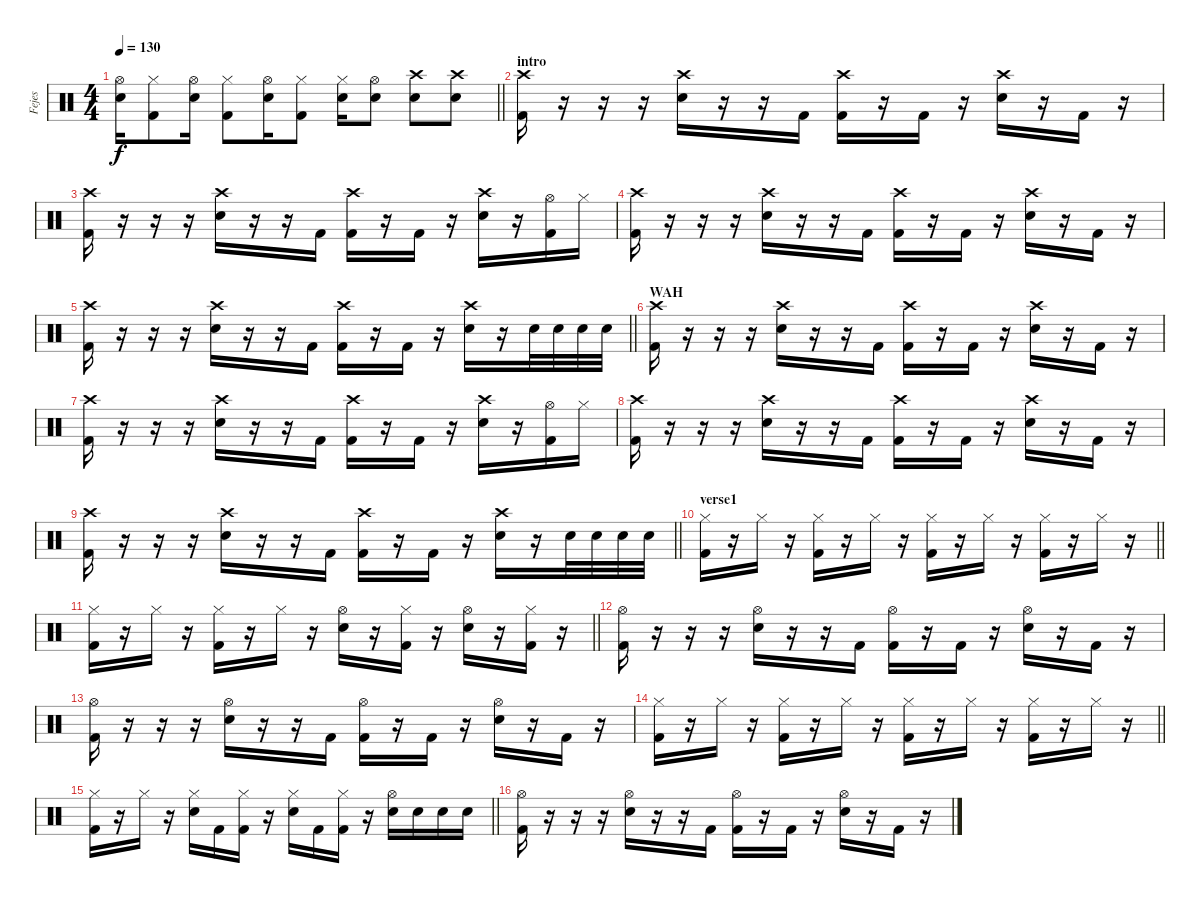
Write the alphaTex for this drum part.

\track ("Fejes" "Fejes") {instrument percussion}
\staff {score}
\articulation defaults
\ts (4 4)
\tempo 130
\clef neutral
\barLineRight lightlight
\ks c
("Hi-Hat (open)" "Snare (hit) 2").16{dy f} ("Hi-Hat (closed)" "Kick (hit) 2").8 ("Hi-Hat (open)" "Snare (hit) 2").16 ("Hi-Hat (closed)" "Kick (hit) 2").8 ("Hi-Hat (open)" "Snare (hit) 2").16 ("Hi-Hat (closed)" "Kick (hit) 2").8 ("Hi-Hat (closed)" "Snare (hit) 2").16 ("Hi-Hat (open)" "Snare (hit) 2").8 ("Crash high (hit)" "Snare (hit) 2").8 ("Crash high (hit)" "Snare (hit) 2").8 |
\section ("" "intro")
("Crash high (hit)" "Kick (hit) 2").16 r.16 r.16 r.16 ("Crash high (hit)" "Snare (hit) 2").16 r.16 r.16 "Kick (hit) 2".16 ("Crash high (hit)" "Kick (hit) 2").16 r.16 "Kick (hit) 2".16 r.16 ("Crash high (hit)" "Snare (hit) 2").16 r.16 "Kick (hit) 2".16 r.16 |
("Crash high (hit)" "Kick (hit) 2").16 r.16 r.16 r.16 ("Crash high (hit)" "Snare (hit) 2").16 r.16 r.16 "Kick (hit) 2".16 ("Crash high (hit)" "Kick (hit) 2").16 r.16 "Kick (hit) 2".16 r.16 ("Crash high (hit)" "Snare (hit) 2").16 r.16 ("Hi-Hat (open)" "Kick (hit) 2").16 "Hi-Hat (closed)".16 |
("Crash high (hit)" "Kick (hit) 2").16 r.16 r.16 r.16 ("Crash high (hit)" "Snare (hit) 2").16 r.16 r.16 "Kick (hit) 2".16 ("Crash high (hit)" "Kick (hit) 2").16 r.16 "Kick (hit) 2".16 r.16 ("Crash high (hit)" "Snare (hit) 2").16 r.16 "Kick (hit) 2".16 r.16 |
\barLineRight lightlight
("Crash high (hit)" "Kick (hit) 2").16 r.16 r.16 r.16 ("Crash high (hit)" "Snare (hit) 2").16 r.16 r.16 "Kick (hit) 2".16 ("Crash high (hit)" "Kick (hit) 2").16 r.16 "Kick (hit) 2".16 r.16 ("Crash high (hit)" "Snare (hit) 2").16 r.16 "Snare (hit) 2".32 "Snare (hit) 2".32 "Snare (hit) 2".32 "Snare (hit) 2".32 |
\section ("" "WAH")
("Crash high (hit)" "Kick (hit) 2").16 r.16 r.16 r.16 ("Crash high (hit)" "Snare (hit) 2").16 r.16 r.16 "Kick (hit) 2".16 ("Crash high (hit)" "Kick (hit) 2").16 r.16 "Kick (hit) 2".16 r.16 ("Crash high (hit)" "Snare (hit) 2").16 r.16 "Kick (hit) 2".16 r.16 |
("Crash high (hit)" "Kick (hit) 2").16 r.16 r.16 r.16 ("Crash high (hit)" "Snare (hit) 2").16 r.16 r.16 "Kick (hit) 2".16 ("Crash high (hit)" "Kick (hit) 2").16 r.16 "Kick (hit) 2".16 r.16 ("Crash high (hit)" "Snare (hit) 2").16 r.16 ("Hi-Hat (open)" "Kick (hit) 2").16 "Hi-Hat (closed)".16 |
("Crash high (hit)" "Kick (hit) 2").16 r.16 r.16 r.16 ("Crash high (hit)" "Snare (hit) 2").16 r.16 r.16 "Kick (hit) 2".16 ("Crash high (hit)" "Kick (hit) 2").16 r.16 "Kick (hit) 2".16 r.16 ("Crash high (hit)" "Snare (hit) 2").16 r.16 "Kick (hit) 2".16 r.16 |
\barLineRight lightlight
("Crash high (hit)" "Kick (hit) 2").16 r.16 r.16 r.16 ("Crash high (hit)" "Snare (hit) 2").16 r.16 r.16 "Kick (hit) 2".16 ("Crash high (hit)" "Kick (hit) 2").16 r.16 "Kick (hit) 2".16 r.16 ("Crash high (hit)" "Snare (hit) 2").16 r.16 "Snare (hit) 2".32 "Snare (hit) 2".32 "Snare (hit) 2".32 "Snare (hit) 2".32 |
\section ("" "verse1")
\barLineRight lightlight
("Hi-Hat (closed)" "Kick (hit) 2").16 r.16 "Hi-Hat (closed)".16 r.16 ("Hi-Hat (closed)" "Kick (hit) 2").16 r.16 "Hi-Hat (closed)".16 r.16 ("Hi-Hat (closed)" "Kick (hit) 2").16 r.16 "Hi-Hat (closed)".16 r.16 ("Hi-Hat (closed)" "Kick (hit) 2").16 r.16 "Hi-Hat (closed)".16 r.16 |
\barLineRight lightlight
("Hi-Hat (closed)" "Kick (hit) 2").16 r.16 "Hi-Hat (closed)".16 r.16 ("Hi-Hat (closed)" "Kick (hit) 2").16 r.16 "Hi-Hat (closed)".16 r.16 ("Hi-Hat (open)" "Snare (hit) 2").16 r.16 ("Hi-Hat (closed)" "Kick (hit) 2").16 r.16 ("Hi-Hat (open)" "Snare (hit) 2").16 r.16 ("Hi-Hat (closed)" "Kick (hit) 2").16 r.16 |
("Hi-Hat (open)" "Kick (hit) 2").16 r.16 r.16 r.16 ("Hi-Hat (open)" "Snare (hit) 2").16 r.16 r.16 "Kick (hit) 2".16 ("Hi-Hat (open)" "Kick (hit) 2").16 r.16 "Kick (hit) 2".16 r.16 ("Hi-Hat (open)" "Snare (hit) 2").16 r.16 "Kick (hit) 2".16 r.16 |
("Hi-Hat (open)" "Kick (hit) 2").16 r.16 r.16 r.16 ("Hi-Hat (open)" "Snare (hit) 2").16 r.16 r.16 "Kick (hit) 2".16 ("Hi-Hat (open)" "Kick (hit) 2").16 r.16 "Kick (hit) 2".16 r.16 ("Hi-Hat (open)" "Snare (hit) 2").16 r.16 "Kick (hit) 2".16 r.16 |
\barLineRight lightlight
("Hi-Hat (closed)" "Kick (hit) 2").16 r.16 "Hi-Hat (closed)".16 r.16 ("Hi-Hat (closed)" "Kick (hit) 2").16 r.16 "Hi-Hat (closed)".16 r.16 ("Hi-Hat (closed)" "Kick (hit) 2").16 r.16 "Hi-Hat (closed)".16 r.16 ("Hi-Hat (closed)" "Kick (hit) 2").16 r.16 "Hi-Hat (closed)".16 r.16 |
\barLineRight lightlight
("Hi-Hat (closed)" "Kick (hit) 2").16 r.16 "Hi-Hat (closed)".16 r.16 ("Hi-Hat (closed)" "Snare (hit) 2").16 "Kick (hit) 2".16 ("Hi-Hat (closed)" "Kick (hit) 2").16 r.16 ("Hi-Hat (closed)" "Snare (hit) 2").16 "Kick (hit) 2".16 ("Hi-Hat (closed)" "Kick (hit) 2").16 r.16 ("Hi-Hat (open)" "Snare (hit) 2").16 "Snare (hit) 2".16 "Snare (hit) 2".16 "Snare (hit) 2".16 |
("Hi-Hat (open)" "Kick (hit) 2").16 r.16 r.16 r.16 ("Hi-Hat (open)" "Snare (hit) 2").16 r.16 r.16 "Kick (hit) 2".16 ("Hi-Hat (open)" "Kick (hit) 2").16 r.16 "Kick (hit) 2".16 r.16 ("Hi-Hat (open)" "Snare (hit) 2").16 r.16 "Kick (hit) 2".16 r.16
